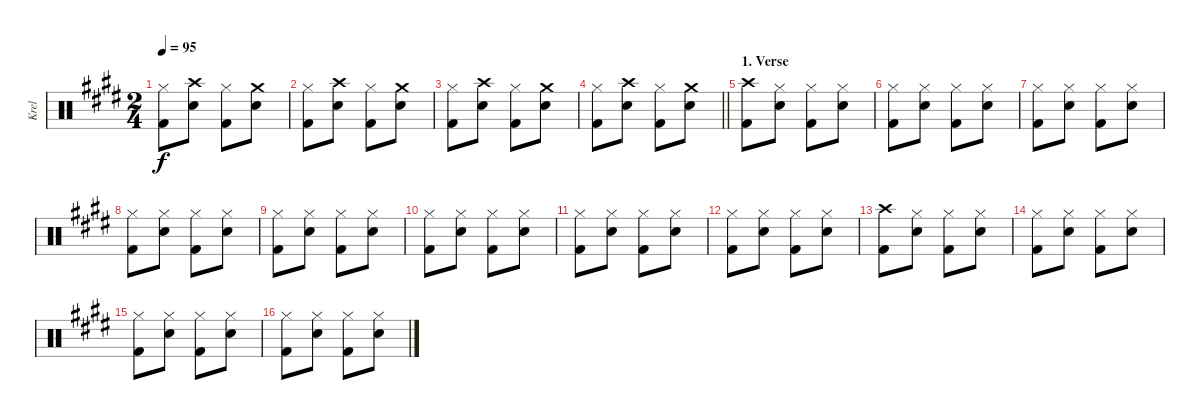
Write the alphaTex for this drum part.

\track ("Krel" "Krel") {instrument percussion}
\staff {score}
\articulation defaults
\ts (2 4)
\tempo 95
\clef neutral
\ks e
("Hi-Hat (closed)" "Kick (hit) 2").8{dy f} ("Crash high (hit)" "Snare (hit) 2").8 ("Hi-Hat (closed)" "Kick (hit) 2").8 ("Crash medium (hit)" "Snare (hit) 2").8 |
("Hi-Hat (closed)" "Kick (hit) 2").8 ("Crash high (hit)" "Snare (hit) 2").8 ("Hi-Hat (closed)" "Kick (hit) 2").8 ("Crash medium (hit)" "Snare (hit) 2").8 |
("Hi-Hat (closed)" "Kick (hit) 2").8 ("Crash high (hit)" "Snare (hit) 2").8 ("Hi-Hat (closed)" "Kick (hit) 2").8 ("Crash medium (hit)" "Snare (hit) 2").8 |
\barLineRight lightlight
("Hi-Hat (closed)" "Kick (hit) 2").8 ("Crash high (hit)" "Snare (hit) 2").8 ("Hi-Hat (closed)" "Kick (hit) 2").8 ("Crash medium (hit)" "Snare (hit) 2").8 |
\section ("" "1. Verse")
("Crash high (hit)" "Kick (hit) 2").8 ("Hi-Hat (closed)" "Snare (hit) 2").8 ("Hi-Hat (closed)" "Kick (hit) 2").8 ("Hi-Hat (closed)" "Snare (hit) 2").8 |
("Hi-Hat (closed)" "Kick (hit) 2").8 ("Hi-Hat (closed)" "Snare (hit) 2").8 ("Hi-Hat (closed)" "Kick (hit) 2").8 ("Hi-Hat (closed)" "Snare (hit) 2").8 |
("Hi-Hat (closed)" "Kick (hit) 2").8 ("Hi-Hat (closed)" "Snare (hit) 2").8 ("Hi-Hat (closed)" "Kick (hit) 2").8 ("Hi-Hat (closed)" "Snare (hit) 2").8 |
("Hi-Hat (closed)" "Kick (hit) 2").8 ("Hi-Hat (closed)" "Snare (hit) 2").8 ("Hi-Hat (closed)" "Kick (hit) 2").8 ("Hi-Hat (closed)" "Snare (hit) 2").8 |
("Hi-Hat (closed)" "Kick (hit) 2").8 ("Hi-Hat (closed)" "Snare (hit) 2").8 ("Hi-Hat (closed)" "Kick (hit) 2").8 ("Hi-Hat (closed)" "Snare (hit) 2").8 |
("Hi-Hat (closed)" "Kick (hit) 2").8 ("Hi-Hat (closed)" "Snare (hit) 2").8 ("Hi-Hat (closed)" "Kick (hit) 2").8 ("Hi-Hat (closed)" "Snare (hit) 2").8 |
("Hi-Hat (closed)" "Kick (hit) 2").8 ("Hi-Hat (closed)" "Snare (hit) 2").8 ("Hi-Hat (closed)" "Kick (hit) 2").8 ("Hi-Hat (closed)" "Snare (hit) 2").8 |
("Hi-Hat (closed)" "Kick (hit) 2").8 ("Hi-Hat (closed)" "Snare (hit) 2").8 ("Hi-Hat (closed)" "Kick (hit) 2").8 ("Hi-Hat (closed)" "Snare (hit) 2").8 |
("Crash high (hit)" "Kick (hit) 2").8 ("Hi-Hat (closed)" "Snare (hit) 2").8 ("Hi-Hat (closed)" "Kick (hit) 2").8 ("Hi-Hat (closed)" "Snare (hit) 2").8 |
("Hi-Hat (closed)" "Kick (hit) 2").8 ("Hi-Hat (closed)" "Snare (hit) 2").8 ("Hi-Hat (closed)" "Kick (hit) 2").8 ("Hi-Hat (closed)" "Snare (hit) 2").8 |
("Hi-Hat (closed)" "Kick (hit) 2").8 ("Hi-Hat (closed)" "Snare (hit) 2").8 ("Hi-Hat (closed)" "Kick (hit) 2").8 ("Hi-Hat (closed)" "Snare (hit) 2").8 |
("Hi-Hat (closed)" "Kick (hit) 2").8 ("Hi-Hat (closed)" "Snare (hit) 2").8 ("Hi-Hat (closed)" "Kick (hit) 2").8 ("Hi-Hat (closed)" "Snare (hit) 2").8
